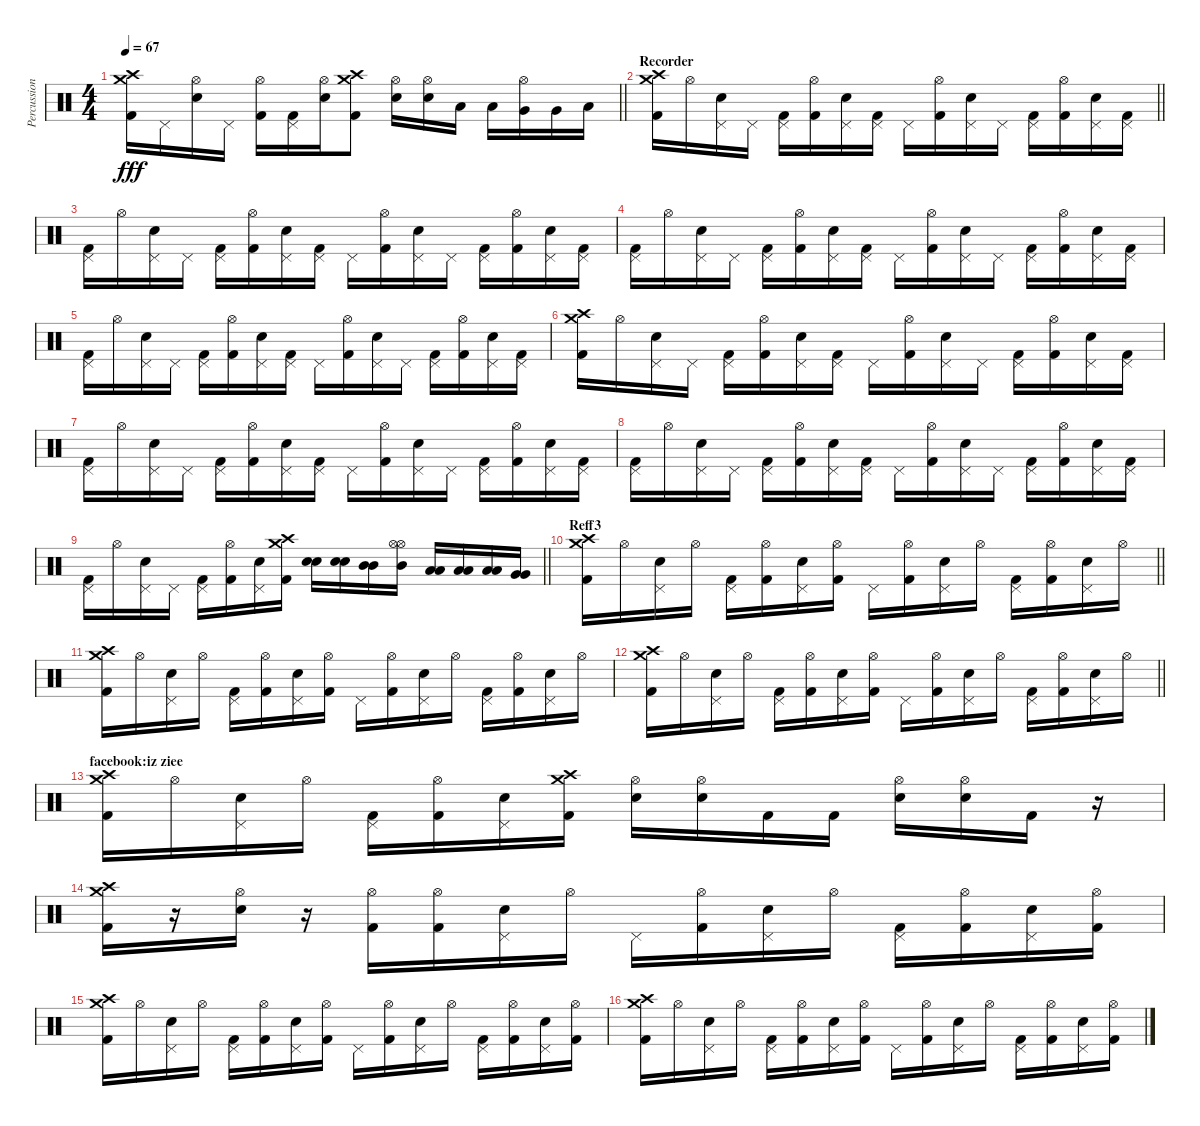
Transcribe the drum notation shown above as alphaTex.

\track ("Percussion(Tomi)" "Percussion") {instrument percussion}
\staff {score}
\articulation defaults
\ts (4 4)
\tempo 67
\clef neutral
\barLineRight lightlight
\ks c
("Kick (hit) 2" "Crash medium (hit)" "Crash high (hit)").16{dy fff} "Pedal Hi-Hat (hit)".16 ("Hi-Hat (open)" "Electric Snare (hit)").16 "Pedal Hi-Hat (hit)".16 ("Kick (hit) 2" "Hi-Hat (open)").16 ("Kick (hit) 2" "Pedal Hi-Hat (hit)").16 ("Electric Snare (hit)" "Hi-Hat (open)").16 ("Kick (hit) 2" "Crash medium (hit)" "Crash high (hit)").8 ("Hi-Hat (open)" "Electric Snare (hit)").16 ("Hi-Hat (open)" "Electric Snare (hit)").16 "Low Tom (hit)".16 "Low Tom (hit)".16 ("Hi-Hat (open)" "Very Low Tom (hit)").16 "Very Low Tom (hit)".16 "Low Floor Tom (hit)".16 |
\section ("" "Recorder")
\barLineRight lightlight
("Kick (hit) 2" "Crash medium (hit)" "Crash high (hit)").16 "Hi-Hat (open)".16 ("Electric Snare (hit)" "Pedal Hi-Hat (hit)").16 "Pedal Hi-Hat (hit)".16 ("Kick (hit) 2" "Pedal Hi-Hat (hit)").16 ("Kick (hit) 2" "Hi-Hat (open)").16 ("Pedal Hi-Hat (hit)" "Electric Snare (hit)").16 ("Kick (hit) 2" "Pedal Hi-Hat (hit)").16 "Pedal Hi-Hat (hit)".16 ("Kick (hit) 2" "Hi-Hat (open)").16 ("Electric Snare (hit)" "Pedal Hi-Hat (hit)").16 "Pedal Hi-Hat (hit)".16 ("Pedal Hi-Hat (hit)" "Kick (hit) 2").16 ("Kick (hit) 2" "Hi-Hat (open)").16 ("Pedal Hi-Hat (hit)" "Electric Snare (hit)").16 ("Kick (hit) 2" "Pedal Hi-Hat (hit)").16 |
("Kick (hit) 2" "Pedal Hi-Hat (hit)").16 "Hi-Hat (open)".16 ("Pedal Hi-Hat (hit)" "Electric Snare (hit)").16 "Pedal Hi-Hat (hit)".16 ("Kick (hit) 2" "Pedal Hi-Hat (hit)").16 ("Kick (hit) 2" "Hi-Hat (open)").16 ("Electric Snare (hit)" "Pedal Hi-Hat (hit)").16 ("Pedal Hi-Hat (hit)" "Kick (hit) 2").16 "Pedal Hi-Hat (hit)".16 ("Kick (hit) 2" "Hi-Hat (open)").16 ("Pedal Hi-Hat (hit)" "Electric Snare (hit)").16 "Pedal Hi-Hat (hit)".16 ("Kick (hit) 2" "Pedal Hi-Hat (hit)").16 ("Kick (hit) 2" "Hi-Hat (open)").16 ("Electric Snare (hit)" "Pedal Hi-Hat (hit)").16 ("Kick (hit) 2" "Pedal Hi-Hat (hit)").16 |
("Kick (hit) 2" "Pedal Hi-Hat (hit)").16 "Hi-Hat (open)".16 ("Electric Snare (hit)" "Pedal Hi-Hat (hit)").16 "Pedal Hi-Hat (hit)".16 ("Kick (hit) 2" "Pedal Hi-Hat (hit)").16 ("Kick (hit) 2" "Hi-Hat (open)").16 ("Pedal Hi-Hat (hit)" "Electric Snare (hit)").16 ("Kick (hit) 2" "Pedal Hi-Hat (hit)").16 "Pedal Hi-Hat (hit)".16 ("Kick (hit) 2" "Hi-Hat (open)").16 ("Electric Snare (hit)" "Pedal Hi-Hat (hit)").16 "Pedal Hi-Hat (hit)".16 ("Pedal Hi-Hat (hit)" "Kick (hit) 2").16 ("Kick (hit) 2" "Hi-Hat (open)").16 ("Pedal Hi-Hat (hit)" "Electric Snare (hit)").16 ("Kick (hit) 2" "Pedal Hi-Hat (hit)").16 |
("Kick (hit) 2" "Pedal Hi-Hat (hit)").16 "Hi-Hat (open)".16 ("Electric Snare (hit)" "Pedal Hi-Hat (hit)").16 "Pedal Hi-Hat (hit)".16 ("Kick (hit) 2" "Pedal Hi-Hat (hit)").16 ("Kick (hit) 2" "Hi-Hat (open)").16 ("Pedal Hi-Hat (hit)" "Electric Snare (hit)").16 ("Kick (hit) 2" "Pedal Hi-Hat (hit)").16 "Pedal Hi-Hat (hit)".16 ("Kick (hit) 2" "Hi-Hat (open)").16 ("Electric Snare (hit)" "Pedal Hi-Hat (hit)").16 "Pedal Hi-Hat (hit)".16 ("Pedal Hi-Hat (hit)" "Kick (hit) 2").16 ("Kick (hit) 2" "Hi-Hat (open)").16 ("Pedal Hi-Hat (hit)" "Electric Snare (hit)").16 ("Kick (hit) 2" "Pedal Hi-Hat (hit)").16 |
("Kick (hit) 2" "Crash medium (hit)" "Crash high (hit)").16 "Hi-Hat (open)".16 ("Electric Snare (hit)" "Pedal Hi-Hat (hit)").16 "Pedal Hi-Hat (hit)".16 ("Kick (hit) 2" "Pedal Hi-Hat (hit)").16 ("Kick (hit) 2" "Hi-Hat (open)").16 ("Pedal Hi-Hat (hit)" "Electric Snare (hit)").16 ("Kick (hit) 2" "Pedal Hi-Hat (hit)").16 "Pedal Hi-Hat (hit)".16 ("Kick (hit) 2" "Hi-Hat (open)").16 ("Electric Snare (hit)" "Pedal Hi-Hat (hit)").16 "Pedal Hi-Hat (hit)".16 ("Pedal Hi-Hat (hit)" "Kick (hit) 2").16 ("Kick (hit) 2" "Hi-Hat (open)").16 ("Pedal Hi-Hat (hit)" "Electric Snare (hit)").16 ("Kick (hit) 2" "Pedal Hi-Hat (hit)").16 |
("Kick (hit) 2" "Pedal Hi-Hat (hit)").16 "Hi-Hat (open)".16 ("Electric Snare (hit)" "Pedal Hi-Hat (hit)").16 "Pedal Hi-Hat (hit)".16 ("Kick (hit) 2" "Pedal Hi-Hat (hit)").16 ("Kick (hit) 2" "Hi-Hat (open)").16 ("Pedal Hi-Hat (hit)" "Electric Snare (hit)").16 ("Kick (hit) 2" "Pedal Hi-Hat (hit)").16 "Pedal Hi-Hat (hit)".16 ("Kick (hit) 2" "Hi-Hat (open)").16 ("Electric Snare (hit)" "Pedal Hi-Hat (hit)").16 "Pedal Hi-Hat (hit)".16 ("Pedal Hi-Hat (hit)" "Kick (hit) 2").16 ("Kick (hit) 2" "Hi-Hat (open)").16 ("Pedal Hi-Hat (hit)" "Electric Snare (hit)").16 ("Kick (hit) 2" "Pedal Hi-Hat (hit)").16 |
("Kick (hit) 2" "Pedal Hi-Hat (hit)").16 "Hi-Hat (open)".16 ("Electric Snare (hit)" "Pedal Hi-Hat (hit)").16 "Pedal Hi-Hat (hit)".16 ("Kick (hit) 2" "Pedal Hi-Hat (hit)").16 ("Kick (hit) 2" "Hi-Hat (open)").16 ("Pedal Hi-Hat (hit)" "Electric Snare (hit)").16 ("Kick (hit) 2" "Pedal Hi-Hat (hit)").16 "Pedal Hi-Hat (hit)".16 ("Kick (hit) 2" "Hi-Hat (open)").16 ("Electric Snare (hit)" "Pedal Hi-Hat (hit)").16 "Pedal Hi-Hat (hit)".16 ("Pedal Hi-Hat (hit)" "Kick (hit) 2").16 ("Kick (hit) 2" "Hi-Hat (open)").16 ("Pedal Hi-Hat (hit)" "Electric Snare (hit)").16 ("Kick (hit) 2" "Pedal Hi-Hat (hit)").16 |
\barLineRight lightlight
("Kick (hit) 2" "Pedal Hi-Hat (hit)").16 "Hi-Hat (open)".16 ("Electric Snare (hit)" "Pedal Hi-Hat (hit)").16 "Pedal Hi-Hat (hit)".16 ("Kick (hit) 2" "Pedal Hi-Hat (hit)").16 ("Kick (hit) 2" "Hi-Hat (open)").16 ("Pedal Hi-Hat (hit)" "Electric Snare (hit)").16 ("Kick (hit) 2" "Crash medium (hit)" "Crash high (hit)").16 ("Electric Snare (hit)" "Electric Snare (hit)").16 ("Electric Snare (hit)" "Electric Snare (hit)").16 ("Mid Tom (hit)" "Mid Tom (hit)").16 ("Hi-Hat (open)" "Mid Tom (hit)" "Hi-Hat (open)").16 ("Low Tom (hit)" "Low Tom (hit)").16 ("Low Tom (hit)" "Low Tom (hit)").16 ("Low Tom (hit)" "Low Tom (hit)").16 ("Very Low Tom (hit)" "Very Low Tom (hit)").16 |
\section ("" "Reff3")
\barLineRight lightlight
("Crash high (hit)" "Kick (hit) 2" "Crash medium (hit)").16 "Hi-Hat (open)".16 ("Electric Snare (hit)" "Pedal Hi-Hat (hit)").16 "Hi-Hat (open)".16 ("Pedal Hi-Hat (hit)" "Kick (hit) 2").16 ("Kick (hit) 2" "Hi-Hat (open)").16 ("Pedal Hi-Hat (hit)" "Electric Snare (hit)").16 ("Kick (hit) 2" "Hi-Hat (open)").16 "Pedal Hi-Hat (hit)".16 ("Kick (hit) 2" "Hi-Hat (open)").16 ("Electric Snare (hit)" "Pedal Hi-Hat (hit)").16 "Hi-Hat (open)".16 ("Pedal Hi-Hat (hit)" "Kick (hit) 2").16 ("Kick (hit) 2" "Hi-Hat (open)").16 ("Pedal Hi-Hat (hit)" "Electric Snare (hit)").16 "Hi-Hat (open)".16 |
("Crash high (hit)" "Kick (hit) 2" "Crash medium (hit)").16 "Hi-Hat (open)".16 ("Electric Snare (hit)" "Pedal Hi-Hat (hit)").16 "Hi-Hat (open)".16 ("Pedal Hi-Hat (hit)" "Kick (hit) 2").16 ("Kick (hit) 2" "Hi-Hat (open)").16 ("Pedal Hi-Hat (hit)" "Electric Snare (hit)").16 ("Kick (hit) 2" "Hi-Hat (open)").16 "Pedal Hi-Hat (hit)".16 ("Kick (hit) 2" "Hi-Hat (open)").16 ("Electric Snare (hit)" "Pedal Hi-Hat (hit)").16 "Hi-Hat (open)".16 ("Pedal Hi-Hat (hit)" "Kick (hit) 2").16 ("Kick (hit) 2" "Hi-Hat (open)").16 ("Pedal Hi-Hat (hit)" "Electric Snare (hit)").16 "Hi-Hat (open)".16 |
\barLineRight lightlight
("Crash high (hit)" "Kick (hit) 2" "Crash medium (hit)").16 "Hi-Hat (open)".16 ("Electric Snare (hit)" "Pedal Hi-Hat (hit)").16 "Hi-Hat (open)".16 ("Pedal Hi-Hat (hit)" "Kick (hit) 2").16 ("Kick (hit) 2" "Hi-Hat (open)").16 ("Pedal Hi-Hat (hit)" "Electric Snare (hit)").16 ("Kick (hit) 2" "Hi-Hat (open)").16 "Pedal Hi-Hat (hit)".16 ("Kick (hit) 2" "Hi-Hat (open)").16 ("Electric Snare (hit)" "Pedal Hi-Hat (hit)").16 "Hi-Hat (open)".16 ("Pedal Hi-Hat (hit)" "Kick (hit) 2").16 ("Kick (hit) 2" "Hi-Hat (open)").16 ("Pedal Hi-Hat (hit)" "Electric Snare (hit)").16 "Hi-Hat (open)".16 |
\section ("" "facebook:iz ziee")
("Crash high (hit)" "Kick (hit) 2" "Crash medium (hit)").16 "Hi-Hat (open)".16 ("Electric Snare (hit)" "Pedal Hi-Hat (hit)").16 "Hi-Hat (open)".16 ("Pedal Hi-Hat (hit)" "Kick (hit) 2").16 ("Kick (hit) 2" "Hi-Hat (open)").16 ("Pedal Hi-Hat (hit)" "Electric Snare (hit)").16 ("Kick (hit) 2" "Crash high (hit)" "Crash medium (hit)").16 ("Hi-Hat (open)" "Electric Snare (hit)").16 ("Hi-Hat (open)" "Electric Snare (hit)").16 "Kick (hit) 2".16 "Kick (hit) 2".16 ("Electric Snare (hit)" "Hi-Hat (open)").16 ("Electric Snare (hit)" "Hi-Hat (open)").16 "Kick (hit) 2".16 r.16 |
("Kick (hit) 2" "Crash medium (hit)" "Crash high (hit)").16 r.16 ("Electric Snare (hit)" "Hi-Hat (open)").16 r.16 ("Kick (hit) 2" "Hi-Hat (open)").16 ("Kick (hit) 2" "Hi-Hat (open)").16 ("Electric Snare (hit)" "Pedal Hi-Hat (hit)").16 "Hi-Hat (open)".16 "Pedal Hi-Hat (hit)".16 ("Kick (hit) 2" "Hi-Hat (open)").16 ("Pedal Hi-Hat (hit)" "Electric Snare (hit)").16 "Hi-Hat (open)".16 ("Pedal Hi-Hat (hit)" "Kick (hit) 2").16 ("Kick (hit) 2" "Hi-Hat (open)").16 ("Pedal Hi-Hat (hit)" "Electric Snare (hit)").16 ("Kick (hit) 2" "Hi-Hat (open)").16 |
("Crash high (hit)" "Kick (hit) 2" "Crash medium (hit)").16 "Hi-Hat (open)".16 ("Pedal Hi-Hat (hit)" "Electric Snare (hit)").16 "Hi-Hat (open)".16 ("Pedal Hi-Hat (hit)" "Kick (hit) 2").16 ("Kick (hit) 2" "Hi-Hat (open)").16 ("Pedal Hi-Hat (hit)" "Electric Snare (hit)").16 ("Kick (hit) 2" "Hi-Hat (open)").16 "Pedal Hi-Hat (hit)".16 ("Kick (hit) 2" "Hi-Hat (open)").16 ("Pedal Hi-Hat (hit)" "Electric Snare (hit)").16 "Hi-Hat (open)".16 ("Kick (hit) 2" "Pedal Hi-Hat (hit)").16 ("Kick (hit) 2" "Hi-Hat (open)").16 ("Pedal Hi-Hat (hit)" "Electric Snare (hit)").16 ("Hi-Hat (open)" "Kick (hit) 2").16 |
("Crash high (hit)" "Kick (hit) 2" "Crash medium (hit)").16 "Hi-Hat (open)".16 ("Pedal Hi-Hat (hit)" "Electric Snare (hit)").16 "Hi-Hat (open)".16 ("Pedal Hi-Hat (hit)" "Kick (hit) 2").16 ("Kick (hit) 2" "Hi-Hat (open)").16 ("Pedal Hi-Hat (hit)" "Electric Snare (hit)").16 ("Kick (hit) 2" "Hi-Hat (open)").16 "Pedal Hi-Hat (hit)".16 ("Kick (hit) 2" "Hi-Hat (open)").16 ("Pedal Hi-Hat (hit)" "Electric Snare (hit)").16 "Hi-Hat (open)".16 ("Kick (hit) 2" "Pedal Hi-Hat (hit)").16 ("Kick (hit) 2" "Hi-Hat (open)").16 ("Pedal Hi-Hat (hit)" "Electric Snare (hit)").16 ("Hi-Hat (open)" "Kick (hit) 2").16
